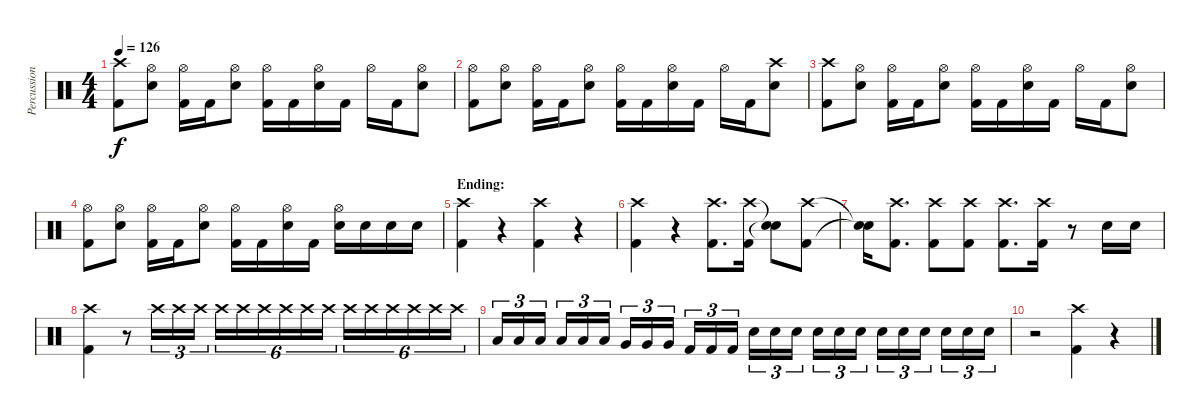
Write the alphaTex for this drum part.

\track ("Percussion" "Percussion") {instrument percussion}
\staff {score}
\articulation defaults
\ts (4 4)
\tempo 126
\clef neutral
\ks c
("Crash high (hit)" "Kick (hit) 2").8{dy f} ("Hi-Hat (open)" "Snare (hit) 2").8 ("Hi-Hat (open)" "Kick (hit) 2").16 "Kick (hit) 2".16 ("Hi-Hat (open)" "Snare (hit) 2").8 ("Hi-Hat (open)" "Kick (hit) 2").16 "Kick (hit) 2".16 ("Hi-Hat (open)" "Snare (hit) 2").16 "Kick (hit) 2".16 "Hi-Hat (open)".16 "Kick (hit) 2".16 ("Hi-Hat (open)" "Snare (hit) 2").8 |
("Hi-Hat (open)" "Kick (hit) 2").8 ("Hi-Hat (open)" "Snare (hit) 2").8 ("Hi-Hat (open)" "Kick (hit) 2").16 "Kick (hit) 2".16 ("Hi-Hat (open)" "Snare (hit) 2").8 ("Hi-Hat (open)" "Kick (hit) 2").16 "Kick (hit) 2".16 ("Hi-Hat (open)" "Snare (hit) 2").16 "Kick (hit) 2".16 "Hi-Hat (open)".16 "Kick (hit) 2".16 ("Crash high (hit)" "Snare (hit) 2").8 |
("Crash high (hit)" "Kick (hit) 2").8 ("Hi-Hat (open)" "Snare (hit) 2").8 ("Hi-Hat (open)" "Kick (hit) 2").16 "Kick (hit) 2".16 ("Hi-Hat (open)" "Snare (hit) 2").8 ("Hi-Hat (open)" "Kick (hit) 2").16 "Kick (hit) 2".16 ("Hi-Hat (open)" "Snare (hit) 2").16 "Kick (hit) 2".16 "Hi-Hat (open)".16 "Kick (hit) 2".16 ("Hi-Hat (open)" "Snare (hit) 2").8 |
("Hi-Hat (open)" "Kick (hit) 2").8 ("Hi-Hat (open)" "Snare (hit) 2").8 ("Hi-Hat (open)" "Kick (hit) 2").16 "Kick (hit) 2".16 ("Hi-Hat (open)" "Snare (hit) 2").8 ("Hi-Hat (open)" "Kick (hit) 2").16 "Kick (hit) 2".16 ("Hi-Hat (open)" "Snare (hit) 2").16 "Kick (hit) 2".16 ("Hi-Hat (open)" "Snare (hit) 2").16 "Snare (hit) 2".16 "Snare (hit) 2".16 "Snare (hit) 2".16 |
\section ("" "Ending:")
("Crash high (hit)" "Kick (hit) 2").4 r.4 ("Crash high (hit)" "Kick (hit) 2").4 r.4 |
("Crash high (hit)" "Kick (hit) 2").4 r.4 ("Crash high (hit)" "Kick (hit) 2").8{d} ("Crash high (hit)" "Kick (hit) 2").16 ("Snare (hit)"{t} "Snare (hit)"{t}).8 ("Crash high (hit)" "Kick (hit) 2").8 |
("Snare (hit)"{t} "Snare (hit)"{t}).16 ("Crash high (hit)" "Kick (hit) 2").8{d} ("Crash high (hit)" "Kick (hit) 2").8 ("Crash high (hit)" "Kick (hit) 2").8 ("Crash high (hit)" "Kick (hit) 2").8{d} ("Crash high (hit)" "Kick (hit) 2").16 r.8 "Snare (hit) 2".16 "Snare (hit) 2".16 |
("Crash high (hit)" "Kick (hit) 2").4 r.8 "Crash high (hit)".16{tu (3 2)} "Crash high (hit)".16{tu (3 2)} "Crash high (hit)".16{tu (3 2)} "Crash high (hit)".16{tu (6 4)} "Crash high (hit)".16{tu (6 4)} "Crash high (hit)".16{tu (6 4)} "Crash high (hit)".16{tu (6 4)} "Crash high (hit)".16{tu (6 4)} "Crash high (hit)".16{tu (6 4)} "Crash high (hit)".16{tu (6 4)} "Crash high (hit)".16{tu (6 4)} "Crash high (hit)".16{tu (6 4)} "Crash high (hit)".16{tu (6 4)} "Crash high (hit)".16{tu (6 4)} "Crash high (hit)".16{tu (6 4)} |
"Low Tom (hit)".16{tu (3 2)} "Low Tom (hit)".16{tu (3 2)} "Low Tom (hit)".16{tu (3 2)} "Low Tom (hit)".16{tu (3 2)} "Low Tom (hit)".16{tu (3 2)} "Low Tom (hit)".16{tu (3 2)} "Very Low Tom (hit)".16{tu (3 2)} "Very Low Tom (hit)".16{tu (3 2)} "Very Low Tom (hit)".16{tu (3 2)} "Kick (hit) 2".16{tu (3 2)} "Kick (hit) 2".16{tu (3 2)} "Kick (hit) 2".16{tu (3 2)} "Snare (hit) 2".16{tu (3 2)} "Snare (hit) 2".16{tu (3 2)} "Snare (hit) 2".16{tu (3 2)} "Snare (hit) 2".16{tu (3 2)} "Snare (hit) 2".16{tu (3 2)} "Snare (hit) 2".16{tu (3 2)} "Snare (hit) 2".16{tu (3 2)} "Snare (hit) 2".16{tu (3 2)} "Snare (hit) 2".16{tu (3 2)} "Snare (hit) 2".16{tu (3 2)} "Snare (hit) 2".16{tu (3 2)} "Snare (hit) 2".16{tu (3 2)} |
r.2 ("Crash high (hit)" "Kick (hit) 2").4 r.4
